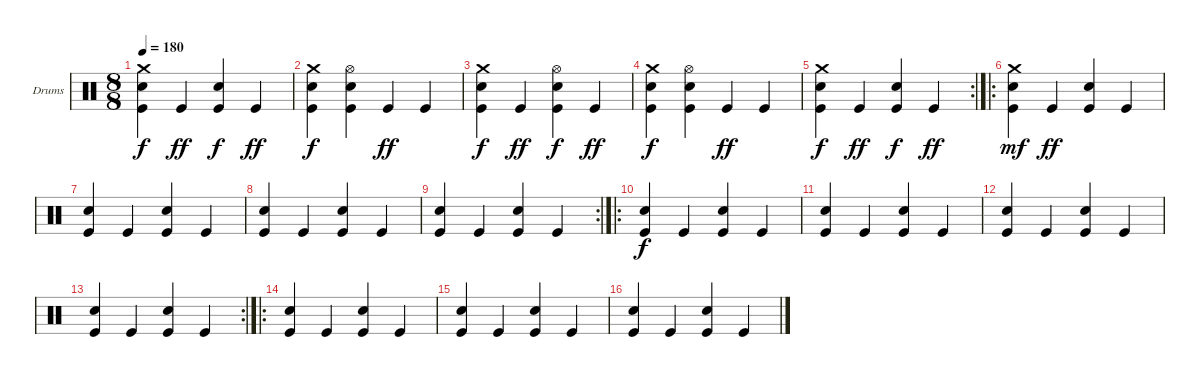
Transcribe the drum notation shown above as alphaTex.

\bracketExtendMode groupsimilarinstruments
\firstSystemTrackNameOrientation horizontal
\otherSystemsTrackNameOrientation horizontal
\track ("Drumkit" "Drums") {instrument percussion}
\staff {score}
\articulation defaults
\ts (8 8)
\tempo 180
\clef neutral
\ks c
("Crash medium (hit)" "Snare (hit) 2" "Kick (hit)").4{dy f} "Kick (hit)".4{dy ff} ("Kick (hit)" "Snare (hit) 2").4{dy f} "Kick (hit)".4{dy ff} |
("Crash medium (hit)" "Snare (hit) 2" "Kick (hit)").4{dy f} ("Hi-Hat (open)" "Snare (hit) 2" "Kick (hit)").4 "Kick (hit)".4{dy ff} "Kick (hit)".4 |
("Crash medium (hit)" "Snare (hit) 2" "Kick (hit)").4{dy f} "Kick (hit)".4{dy ff} ("Hi-Hat (open)" "Snare (hit) 2" "Kick (hit)").4{dy f} "Kick (hit)".4{dy ff} |
("Crash medium (hit)" "Snare (hit) 2" "Kick (hit)").4{dy f} ("Hi-Hat (open)" "Snare (hit) 2" "Kick (hit)").4 "Kick (hit)".4{dy ff} "Kick (hit)".4 |
\rc 2
("Crash medium (hit)" "Snare (hit) 2" "Kick (hit)").4{dy f} "Kick (hit)".4{dy ff} ("Kick (hit)" "Snare (hit) 2").4{dy f} "Kick (hit)".4{dy ff} |
\ro
("Crash medium (hit)" "Snare (hit) 2" "Kick (hit)").4{dy mf} "Kick (hit)".4{dy ff} ("Snare (hit) 2" "Kick (hit)").4 "Kick (hit)".4 |
("Snare (hit) 2" "Kick (hit)").4 "Kick (hit)".4 ("Snare (hit) 2" "Kick (hit)").4 "Kick (hit)".4 |
("Snare (hit) 2" "Kick (hit)").4 "Kick (hit)".4 ("Snare (hit) 2" "Kick (hit)").4 "Kick (hit)".4 |
\rc 2
("Snare (hit) 2" "Kick (hit)").4 "Kick (hit)".4 ("Snare (hit) 2" "Kick (hit)").4 "Kick (hit)".4 |
\ro
("Snare (hit) 2" "Kick (hit)").4{dy f} "Kick (hit)".4 ("Snare (hit) 2" "Kick (hit)").4 "Kick (hit)".4 |
("Snare (hit) 2" "Kick (hit)").4 "Kick (hit)".4 ("Snare (hit) 2" "Kick (hit)").4 "Kick (hit)".4 |
("Snare (hit) 2" "Kick (hit)").4 "Kick (hit)".4 ("Snare (hit) 2" "Kick (hit)").4 "Kick (hit)".4 |
\rc 2
("Snare (hit) 2" "Kick (hit)").4 "Kick (hit)".4 ("Snare (hit) 2" "Kick (hit)").4 "Kick (hit)".4 |
\ro
("Snare (hit) 2" "Kick (hit)").4 "Kick (hit)".4 ("Snare (hit) 2" "Kick (hit)").4 "Kick (hit)".4 |
("Snare (hit) 2" "Kick (hit)").4 "Kick (hit)".4 ("Snare (hit) 2" "Kick (hit)").4 "Kick (hit)".4 |
("Snare (hit) 2" "Kick (hit)").4 "Kick (hit)".4 ("Snare (hit) 2" "Kick (hit)").4 "Kick (hit)".4
